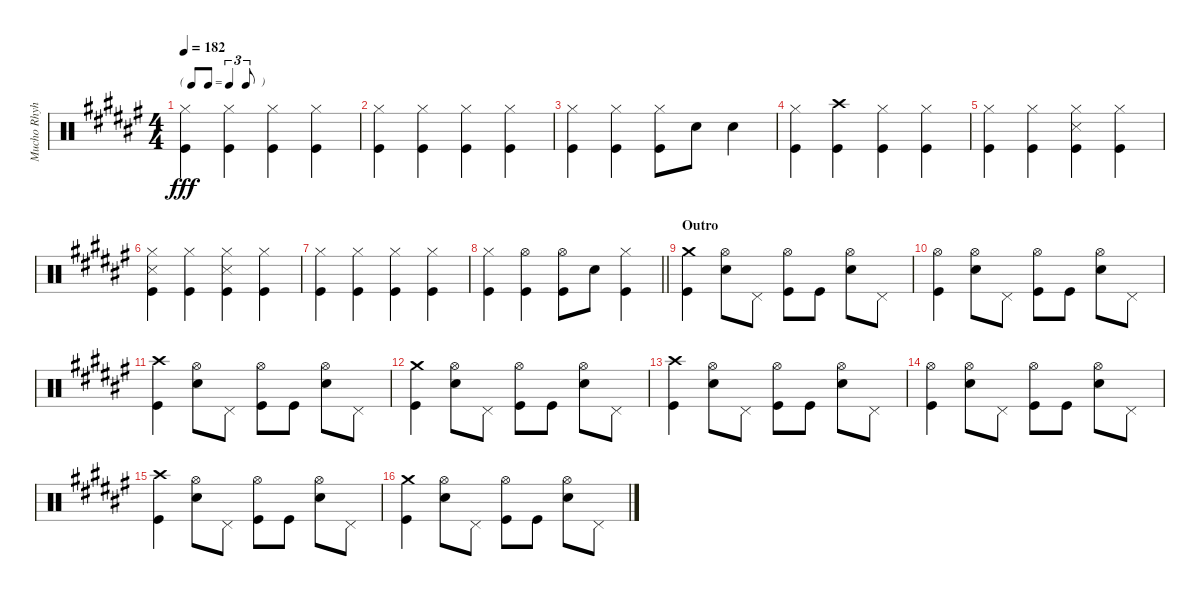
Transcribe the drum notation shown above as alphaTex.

\track ("Mucho Rhyhtm" "Mucho Rhyh") {instrument percussion}
\staff {score}
\articulation defaults
\ts (4 4)
\tf triplet8th
\tempo 182
\clef neutral
\ks f#
("Hi-Hat (closed)" "Kick (hit)").4{dy fff} ("Hi-Hat (closed)" "Kick (hit)").4 ("Hi-Hat (closed)" "Kick (hit)").4 ("Hi-Hat (closed)" "Kick (hit)").4 |
("Hi-Hat (closed)" "Kick (hit)").4 ("Hi-Hat (closed)" "Kick (hit)").4 ("Hi-Hat (closed)" "Kick (hit)").4 ("Hi-Hat (closed)" "Kick (hit)").4 |
("Hi-Hat (closed)" "Kick (hit)").4 ("Hi-Hat (closed)" "Kick (hit)").4 ("Hi-Hat (closed)" "Kick (hit)").8 "Snare (hit) 2".8 "Snare (hit) 2".4 |
("Hi-Hat (closed)" "Kick (hit)").4 ("Crash high (hit)" "Kick (hit)").4 ("Hi-Hat (closed)" "Kick (hit)").4 ("Hi-Hat (closed)" "Kick (hit)").4 |
("Hi-Hat (closed)" "Kick (hit)").4 ("Hi-Hat (closed)" "Kick (hit)").4 ("Hi-Hat (closed)" "Snare (side stick) 3" "Kick (hit)").4 ("Hi-Hat (closed)" "Kick (hit)").4 |
("Hi-Hat (closed)" "Snare (side stick) 3" "Kick (hit)").4 ("Hi-Hat (closed)" "Kick (hit)").4 ("Hi-Hat (closed)" "Snare (side stick) 3" "Kick (hit)").4 ("Hi-Hat (closed)" "Kick (hit)").4 |
("Hi-Hat (closed)" "Kick (hit)").4 ("Hi-Hat (closed)" "Kick (hit)").4 ("Hi-Hat (closed)" "Kick (hit)").4 ("Hi-Hat (closed)" "Kick (hit)").4 |
\barLineRight lightlight
("Hi-Hat (closed)" "Kick (hit)").4 ("Hi-Hat (open)" "Kick (hit)").4 ("Hi-Hat (open)" "Kick (hit)").8 "Snare (hit) 2".8 ("Hi-Hat (closed)" "Kick (hit)").4 |
\section ("" "Outro")
("Crash medium (hit)" "Kick (hit)").4 ("Hi-Hat (open)" "Snare (hit) 2").8 "Pedal Hi-Hat (hit)".8 ("Hi-Hat (open)" "Kick (hit)").8 "Kick (hit)".8 ("Hi-Hat (open)" "Snare (hit) 2").8 "Pedal Hi-Hat (hit)".8 |
("Hi-Hat (open)" "Kick (hit)").4 ("Hi-Hat (open)" "Snare (hit) 2").8 "Pedal Hi-Hat (hit)".8 ("Hi-Hat (open)" "Kick (hit)").8 "Kick (hit)".8 ("Hi-Hat (open)" "Snare (hit) 2").8 "Pedal Hi-Hat (hit)".8 |
("Crash high (hit)" "Kick (hit)").4 ("Hi-Hat (open)" "Snare (hit) 2").8 "Pedal Hi-Hat (hit)".8 ("Hi-Hat (open)" "Kick (hit)").8 "Kick (hit)".8 ("Hi-Hat (open)" "Snare (hit) 2").8 "Pedal Hi-Hat (hit)".8 |
("Crash medium (hit)" "Kick (hit)").4 ("Hi-Hat (open)" "Snare (hit) 2").8 "Pedal Hi-Hat (hit)".8 ("Hi-Hat (open)" "Kick (hit)").8 "Kick (hit)".8 ("Hi-Hat (open)" "Snare (hit) 2").8 "Pedal Hi-Hat (hit)".8 |
("Crash high (hit)" "Kick (hit)").4 ("Hi-Hat (open)" "Snare (hit) 2").8 "Pedal Hi-Hat (hit)".8 ("Hi-Hat (open)" "Kick (hit)").8 "Kick (hit)".8 ("Hi-Hat (open)" "Snare (hit) 2").8 "Pedal Hi-Hat (hit)".8 |
("Hi-Hat (open)" "Kick (hit)").4 ("Hi-Hat (open)" "Snare (hit) 2").8 "Pedal Hi-Hat (hit)".8 ("Hi-Hat (open)" "Kick (hit)").8 "Kick (hit)".8 ("Hi-Hat (open)" "Snare (hit) 2").8 "Pedal Hi-Hat (hit)".8 |
("Crash high (hit)" "Kick (hit)").4 ("Hi-Hat (open)" "Snare (hit) 2").8 "Pedal Hi-Hat (hit)".8 ("Hi-Hat (open)" "Kick (hit)").8 "Kick (hit)".8 ("Hi-Hat (open)" "Snare (hit) 2").8 "Pedal Hi-Hat (hit)".8 |
("Crash medium (hit)" "Kick (hit)").4 ("Hi-Hat (open)" "Snare (hit) 2").8 "Pedal Hi-Hat (hit)".8 ("Hi-Hat (open)" "Kick (hit)").8 "Kick (hit)".8 ("Hi-Hat (open)" "Snare (hit) 2").8 "Pedal Hi-Hat (hit)".8
